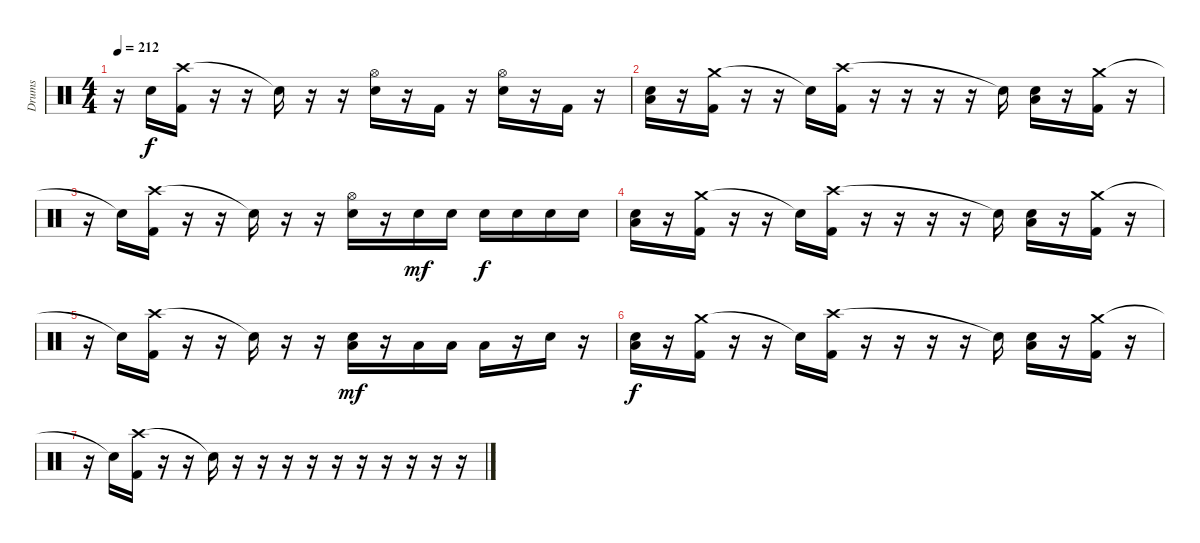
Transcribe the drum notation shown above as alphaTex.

\track ("Drums" "Drums") {instrument percussion}
\staff {score}
\articulation defaults
\ts (4 4)
\tempo 212
\clef neutral
\ks c
r.16{dy f} "Snare (hit)"{t}.16 ("Crash high (hit)" "Kick (hit) 2").16 r.16 r.16 "Snare (hit)"{t}.16 r.16 r.16 ("Hi-Hat (open)" "Electric Snare (hit)").16 r.16 "Kick (hit) 2".16 r.16 ("Hi-Hat (open)" "Electric Snare (hit)").16 r.16 "Kick (hit) 2".16 r.16 |
("Low Tom (hit)" "Electric Snare (hit)").16 r.16 ("Crash medium (hit)" "Kick (hit) 2").16 r.16 r.16 "Snare (hit)"{t}.16 ("Crash high (hit)" "Kick (hit) 2").16 r.16 r.16 r.16 r.16 "Snare (hit)"{t}.16 ("Low Tom (hit)" "Electric Snare (hit)").16 r.16 ("Crash medium (hit)" "Kick (hit) 2").16 r.16 |
r.16 "Snare (hit)"{t}.16 ("Crash high (hit)" "Kick (hit) 2").16 r.16 r.16 "Snare (hit)"{t}.16 r.16 r.16 ("Hi-Hat (open)" "Electric Snare (hit)").16 r.16 "Electric Snare (hit)".16{dy mf} "Electric Snare (hit)".16 "Electric Snare (hit)".16{dy f} "Electric Snare (hit)".16 "Electric Snare (hit)".16 "Electric Snare (hit)".16 |
("Low Tom (hit)" "Electric Snare (hit)").16 r.16 ("Crash medium (hit)" "Kick (hit) 2").16 r.16 r.16 "Snare (hit)"{t}.16 ("Crash high (hit)" "Kick (hit) 2").16 r.16 r.16 r.16 r.16 "Snare (hit)"{t}.16 ("Low Tom (hit)" "Electric Snare (hit)").16 r.16 ("Crash medium (hit)" "Kick (hit) 2").16 r.16 |
r.16 "Snare (hit)"{t}.16 ("Crash high (hit)" "Kick (hit) 2").16 r.16 r.16 "Snare (hit)"{t}.16 r.16 r.16 ("Low Tom (hit)" "Electric Snare (hit)").16{dy mf} r.16 "Low Tom (hit)".16 "Low Tom (hit)".16 "Low Floor Tom (hit)".16 r.16 "Electric Snare (hit)".16 r.16 |
("Low Tom (hit)" "Electric Snare (hit)").16{dy f} r.16 ("Crash medium (hit)" "Kick (hit) 2").16 r.16 r.16 "Snare (hit)"{t}.16 ("Crash high (hit)" "Kick (hit) 2").16 r.16 r.16 r.16 r.16 "Snare (hit)"{t}.16 ("Low Tom (hit)" "Electric Snare (hit)").16 r.16 ("Crash medium (hit)" "Kick (hit) 2").16 r.16 |
r.16 "Snare (hit)"{t}.16 ("Crash high (hit)" "Kick (hit) 2").16 r.16 r.16 "Snare (hit)"{t}.16 r.16 r.16 r.16 r.16 r.16 r.16 r.16 r.16 r.16 r.16
